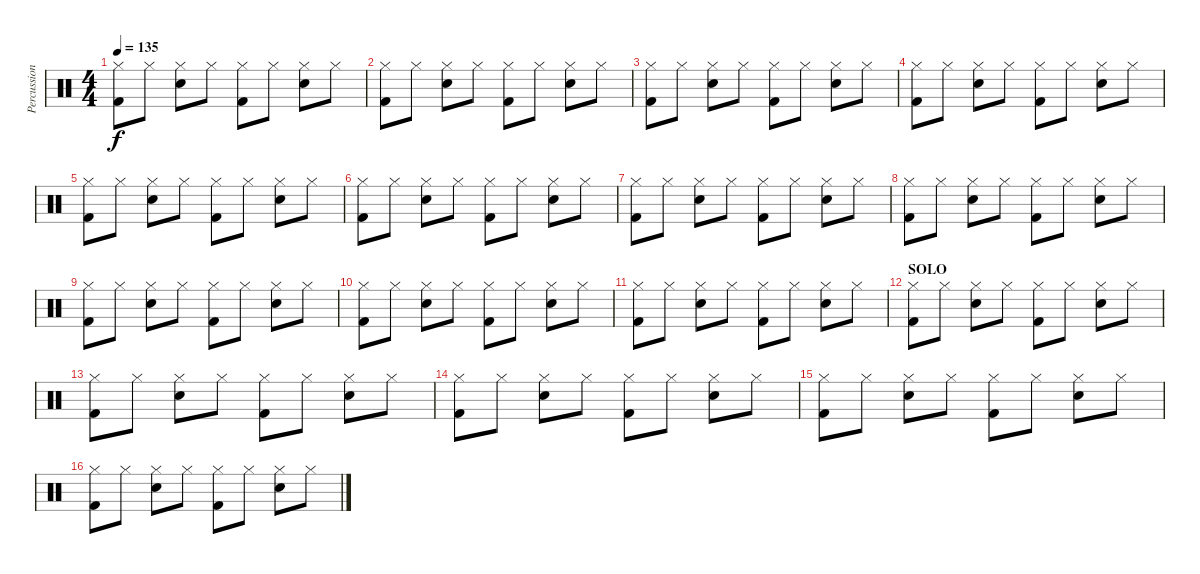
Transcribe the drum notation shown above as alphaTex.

\track ("Percussions" "Percussion") {instrument percussion}
\staff {score}
\articulation defaults
\ts (4 4)
\tempo 135
\clef neutral
\ks c
("Kick (hit) 2" "Hi-Hat (closed)").8{dy f} "Hi-Hat (closed)".8 ("Hi-Hat (closed)" "Snare (hit) 2").8 "Hi-Hat (closed)".8 ("Hi-Hat (closed)" "Kick (hit) 2").8 "Hi-Hat (closed)".8 ("Hi-Hat (closed)" "Snare (hit) 2").8 "Hi-Hat (closed)".8 |
("Kick (hit) 2" "Hi-Hat (closed)").8 "Hi-Hat (closed)".8 ("Hi-Hat (closed)" "Snare (hit) 2").8 "Hi-Hat (closed)".8 ("Hi-Hat (closed)" "Kick (hit) 2").8 "Hi-Hat (closed)".8 ("Hi-Hat (closed)" "Snare (hit) 2").8 "Hi-Hat (closed)".8 |
("Kick (hit) 2" "Hi-Hat (closed)").8 "Hi-Hat (closed)".8 ("Hi-Hat (closed)" "Snare (hit) 2").8 "Hi-Hat (closed)".8 ("Hi-Hat (closed)" "Kick (hit) 2").8 "Hi-Hat (closed)".8 ("Hi-Hat (closed)" "Snare (hit) 2").8 "Hi-Hat (closed)".8 |
("Kick (hit) 2" "Hi-Hat (closed)").8 "Hi-Hat (closed)".8 ("Hi-Hat (closed)" "Snare (hit) 2").8 "Hi-Hat (closed)".8 ("Hi-Hat (closed)" "Kick (hit) 2").8 "Hi-Hat (closed)".8 ("Hi-Hat (closed)" "Snare (hit) 2").8 "Hi-Hat (closed)".8 |
("Kick (hit) 2" "Hi-Hat (closed)").8 "Hi-Hat (closed)".8 ("Hi-Hat (closed)" "Snare (hit) 2").8 "Hi-Hat (closed)".8 ("Hi-Hat (closed)" "Kick (hit) 2").8 "Hi-Hat (closed)".8 ("Hi-Hat (closed)" "Snare (hit) 2").8 "Hi-Hat (closed)".8 |
("Kick (hit) 2" "Hi-Hat (closed)").8 "Hi-Hat (closed)".8 ("Hi-Hat (closed)" "Snare (hit) 2").8 "Hi-Hat (closed)".8 ("Hi-Hat (closed)" "Kick (hit) 2").8 "Hi-Hat (closed)".8 ("Hi-Hat (closed)" "Snare (hit) 2").8 "Hi-Hat (closed)".8 |
("Kick (hit) 2" "Hi-Hat (closed)").8 "Hi-Hat (closed)".8 ("Hi-Hat (closed)" "Snare (hit) 2").8 "Hi-Hat (closed)".8 ("Hi-Hat (closed)" "Kick (hit) 2").8 "Hi-Hat (closed)".8 ("Hi-Hat (closed)" "Snare (hit) 2").8 "Hi-Hat (closed)".8 |
("Kick (hit) 2" "Hi-Hat (closed)").8 "Hi-Hat (closed)".8 ("Hi-Hat (closed)" "Snare (hit) 2").8 "Hi-Hat (closed)".8 ("Hi-Hat (closed)" "Kick (hit) 2").8 "Hi-Hat (closed)".8 ("Hi-Hat (closed)" "Snare (hit) 2").8 "Hi-Hat (closed)".8 |
("Kick (hit) 2" "Hi-Hat (closed)").8 "Hi-Hat (closed)".8 ("Hi-Hat (closed)" "Snare (hit) 2").8 "Hi-Hat (closed)".8 ("Hi-Hat (closed)" "Kick (hit) 2").8 "Hi-Hat (closed)".8 ("Hi-Hat (closed)" "Snare (hit) 2").8 "Hi-Hat (closed)".8 |
("Kick (hit) 2" "Hi-Hat (closed)").8 "Hi-Hat (closed)".8 ("Hi-Hat (closed)" "Snare (hit) 2").8 "Hi-Hat (closed)".8 ("Hi-Hat (closed)" "Kick (hit) 2").8 "Hi-Hat (closed)".8 ("Hi-Hat (closed)" "Snare (hit) 2").8 "Hi-Hat (closed)".8 |
("Kick (hit) 2" "Hi-Hat (closed)").8 "Hi-Hat (closed)".8 ("Hi-Hat (closed)" "Snare (hit) 2").8 "Hi-Hat (closed)".8 ("Hi-Hat (closed)" "Kick (hit) 2").8 "Hi-Hat (closed)".8 ("Hi-Hat (closed)" "Snare (hit) 2").8 "Hi-Hat (closed)".8 |
\section ("" "SOLO")
("Kick (hit) 2" "Hi-Hat (closed)").8 "Hi-Hat (closed)".8 ("Hi-Hat (closed)" "Snare (hit) 2").8 "Hi-Hat (closed)".8 ("Hi-Hat (closed)" "Kick (hit) 2").8 "Hi-Hat (closed)".8 ("Hi-Hat (closed)" "Snare (hit) 2").8 "Hi-Hat (closed)".8 |
("Kick (hit) 2" "Hi-Hat (closed)").8 "Hi-Hat (closed)".8 ("Hi-Hat (closed)" "Snare (hit) 2").8 "Hi-Hat (closed)".8 ("Hi-Hat (closed)" "Kick (hit) 2").8 "Hi-Hat (closed)".8 ("Hi-Hat (closed)" "Snare (hit) 2").8 "Hi-Hat (closed)".8 |
("Kick (hit) 2" "Hi-Hat (closed)").8 "Hi-Hat (closed)".8 ("Hi-Hat (closed)" "Snare (hit) 2").8 "Hi-Hat (closed)".8 ("Hi-Hat (closed)" "Kick (hit) 2").8 "Hi-Hat (closed)".8 ("Hi-Hat (closed)" "Snare (hit) 2").8 "Hi-Hat (closed)".8 |
("Kick (hit) 2" "Hi-Hat (closed)").8 "Hi-Hat (closed)".8 ("Hi-Hat (closed)" "Snare (hit) 2").8 "Hi-Hat (closed)".8 ("Hi-Hat (closed)" "Kick (hit) 2").8 "Hi-Hat (closed)".8 ("Hi-Hat (closed)" "Snare (hit) 2").8 "Hi-Hat (closed)".8 |
("Kick (hit) 2" "Hi-Hat (closed)").8 "Hi-Hat (closed)".8 ("Hi-Hat (closed)" "Snare (hit) 2").8 "Hi-Hat (closed)".8 ("Hi-Hat (closed)" "Kick (hit) 2").8 "Hi-Hat (closed)".8 ("Hi-Hat (closed)" "Snare (hit) 2").8 "Hi-Hat (closed)".8
